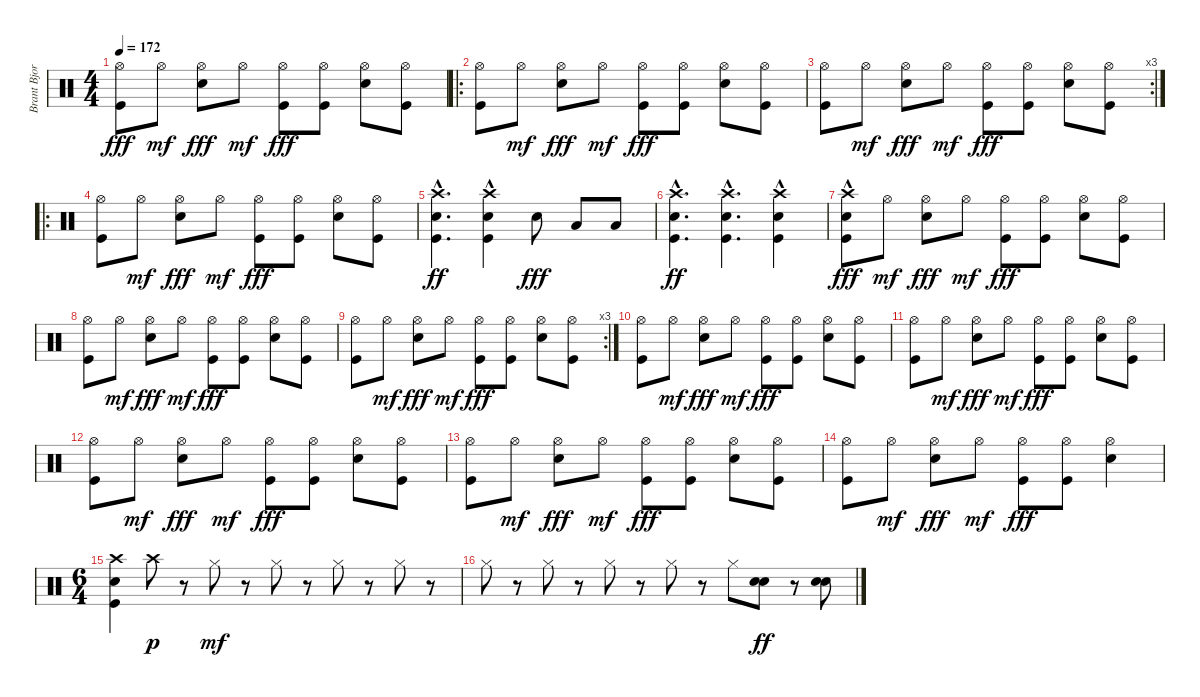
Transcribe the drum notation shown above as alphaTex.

\track ("Brant Bjork" "Brant Bjor") {instrument percussion}
\staff {score}
\articulation defaults
\ts (4 4)
\tempo 172
\clef neutral
\ks c
("Hi-Hat (open)" "Kick (hit)").8{dy fff} "Hi-Hat (open)".8{dy mf} ("Hi-Hat (open)" "Snare (hit) 2").8{dy fff} "Hi-Hat (open)".8{dy mf} ("Hi-Hat (open)" "Kick (hit)").8{dy fff} ("Hi-Hat (open)" "Kick (hit)").8 ("Hi-Hat (open)" "Snare (hit) 2").8 ("Hi-Hat (open)" "Kick (hit)").8 |
\ro
("Hi-Hat (open)" "Kick (hit)").8 "Hi-Hat (open)".8{dy mf} ("Hi-Hat (open)" "Snare (hit) 2").8{dy fff} "Hi-Hat (open)".8{dy mf} ("Hi-Hat (open)" "Kick (hit)").8{dy fff} ("Hi-Hat (open)" "Kick (hit)").8 ("Hi-Hat (open)" "Snare (hit) 2").8 ("Hi-Hat (open)" "Kick (hit)").8 |
\rc 3
("Hi-Hat (open)" "Kick (hit)").8 "Hi-Hat (open)".8{dy mf} ("Hi-Hat (open)" "Snare (hit) 2").8{dy fff} "Hi-Hat (open)".8{dy mf} ("Hi-Hat (open)" "Kick (hit)").8{dy fff} ("Hi-Hat (open)" "Kick (hit)").8 ("Hi-Hat (open)" "Snare (hit) 2").8 ("Hi-Hat (open)" "Kick (hit)").8 |
\ro
("Hi-Hat (open)" "Kick (hit)").8 "Hi-Hat (open)".8{dy mf} ("Hi-Hat (open)" "Snare (hit) 2").8{dy fff} "Hi-Hat (open)".8{dy mf} ("Hi-Hat (open)" "Kick (hit)").8{dy fff} ("Hi-Hat (open)" "Kick (hit)").8 ("Hi-Hat (open)" "Snare (hit) 2").8 ("Hi-Hat (open)" "Kick (hit)").8 |
("Crash high (hit)"{hac} "Snare (hit) 2" "Kick (hit)").4{d dy ff} ("Crash high (hit)"{hac} "Snare (hit) 2" "Kick (hit)").4 "Snare (hit) 2".8{dy fff} "Low Tom (hit)".8 "Low Tom (hit)".8 |
("Crash high (hit)"{hac} "Snare (hit) 2" "Kick (hit)").4{d dy ff} ("Crash high (hit)"{hac} "Snare (hit) 2" "Kick (hit)").4{d} ("Crash high (hit)"{hac} "Snare (hit) 2" "Kick (hit)").4 |
("Crash high (hit)"{hac} "Snare (hit) 2" "Kick (hit)").8{dy fff} "Hi-Hat (open)".8{dy mf} ("Hi-Hat (open)" "Snare (hit) 2").8{dy fff} "Hi-Hat (open)".8{dy mf} ("Hi-Hat (open)" "Kick (hit)").8{dy fff} ("Hi-Hat (open)" "Kick (hit)").8 ("Hi-Hat (open)" "Snare (hit) 2").8 ("Hi-Hat (open)" "Kick (hit)").8 |
("Hi-Hat (open)" "Kick (hit)").8 "Hi-Hat (open)".8{dy mf} ("Hi-Hat (open)" "Snare (hit) 2").8{dy fff} "Hi-Hat (open)".8{dy mf} ("Hi-Hat (open)" "Kick (hit)").8{dy fff} ("Hi-Hat (open)" "Kick (hit)").8 ("Hi-Hat (open)" "Snare (hit) 2").8 ("Hi-Hat (open)" "Kick (hit)").8 |
\rc 3
("Hi-Hat (open)" "Kick (hit)").8 "Hi-Hat (open)".8{dy mf} ("Hi-Hat (open)" "Snare (hit) 2").8{dy fff} "Hi-Hat (open)".8{dy mf} ("Hi-Hat (open)" "Kick (hit)").8{dy fff} ("Hi-Hat (open)" "Kick (hit)").8 ("Hi-Hat (open)" "Snare (hit) 2").8 ("Hi-Hat (open)" "Kick (hit)").8 |
("Hi-Hat (open)" "Kick (hit)").8 "Hi-Hat (open)".8{dy mf} ("Hi-Hat (open)" "Snare (hit) 2").8{dy fff} "Hi-Hat (open)".8{dy mf} ("Hi-Hat (open)" "Kick (hit)").8{dy fff} ("Hi-Hat (open)" "Kick (hit)").8 ("Hi-Hat (open)" "Snare (hit) 2").8 ("Hi-Hat (open)" "Kick (hit)").8 |
("Hi-Hat (open)" "Kick (hit)").8 "Hi-Hat (open)".8{dy mf} ("Hi-Hat (open)" "Snare (hit) 2").8{dy fff} "Hi-Hat (open)".8{dy mf} ("Hi-Hat (open)" "Kick (hit)").8{dy fff} ("Hi-Hat (open)" "Kick (hit)").8 ("Hi-Hat (open)" "Snare (hit) 2").8 ("Hi-Hat (open)" "Kick (hit)").8 |
("Hi-Hat (open)" "Kick (hit)").8 "Hi-Hat (open)".8{dy mf} ("Hi-Hat (open)" "Snare (hit) 2").8{dy fff} "Hi-Hat (open)".8{dy mf} ("Hi-Hat (open)" "Kick (hit)").8{dy fff} ("Hi-Hat (open)" "Kick (hit)").8 ("Hi-Hat (open)" "Snare (hit) 2").8 ("Hi-Hat (open)" "Kick (hit)").8 |
("Hi-Hat (open)" "Kick (hit)").8 "Hi-Hat (open)".8{dy mf} ("Hi-Hat (open)" "Snare (hit) 2").8{dy fff} "Hi-Hat (open)".8{dy mf} ("Hi-Hat (open)" "Kick (hit)").8{dy fff} ("Hi-Hat (open)" "Kick (hit)").8 ("Hi-Hat (open)" "Snare (hit) 2").8 ("Hi-Hat (open)" "Kick (hit)").8 |
("Hi-Hat (open)" "Kick (hit)").8 "Hi-Hat (open)".8{dy mf} ("Hi-Hat (open)" "Snare (hit) 2").8{dy fff} "Hi-Hat (open)".8{dy mf} ("Hi-Hat (open)" "Kick (hit)").8{dy fff} ("Hi-Hat (open)" "Kick (hit)").8 ("Hi-Hat (open)" "Snare (hit) 2").4 |
\ts (6 4)
("Crash high (hit)" "Snare (hit) 2" "Kick (hit)").4 "Crash high (hit)".8{dy p} r.8 "Hi-Hat (closed)".8{dy mf} r.8 "Hi-Hat (closed)".8 r.8 "Hi-Hat (closed)".8 r.8 "Hi-Hat (closed)".8 r.8 |
"Hi-Hat (closed)".8 r.8 "Hi-Hat (closed)".8 r.8 "Hi-Hat (closed)".8 r.8 "Hi-Hat (closed)".8 r.8 "Hi-Hat (closed)".8 ("Snare (hit) 2" "Snare (hit) 2").8{bd 240 dy ff} r.8 ("Snare (hit) 2" "Snare (hit) 2").8{bd 240}
